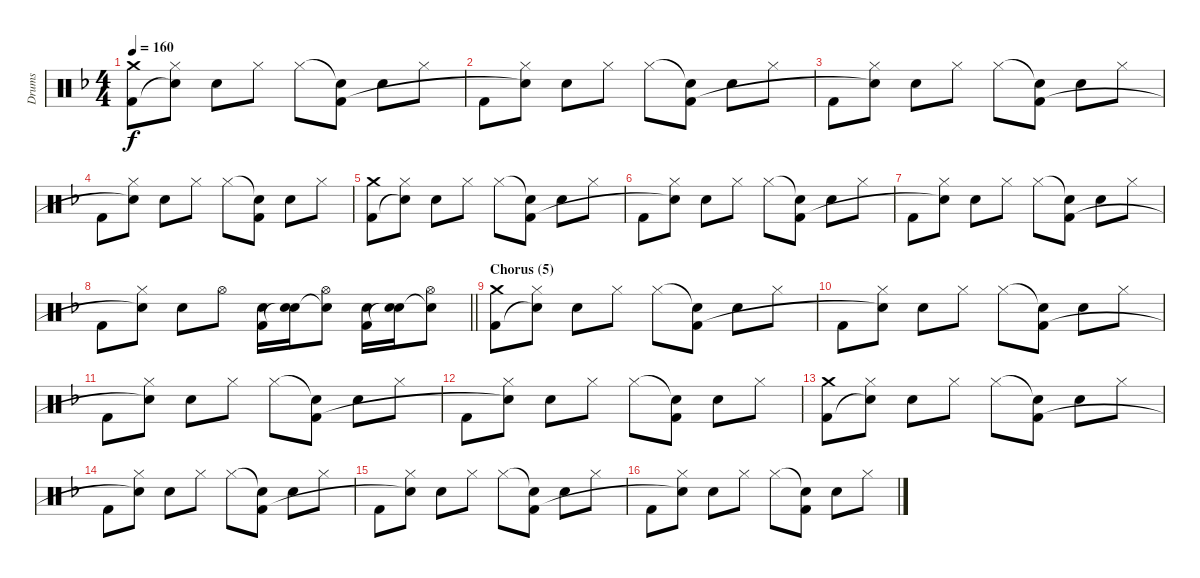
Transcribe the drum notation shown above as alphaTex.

\track ("Drums" "Drums") {instrument percussion}
\staff {score}
\articulation defaults
\ts (4 4)
\tempo 160
\clef neutral
\ks f
("Crash medium (hit)" "Kick (hit) 2").8{dy f} ("Hi-Hat (closed)" "Snare (hit)"{t}).8 "Electric Snare (hit)".8 "Hi-Hat (closed)".8 "Hi-Hat (closed)".8 ("Snare (hit)"{t} "Kick (hit) 2").8 "Electric Snare (hit)".8 "Hi-Hat (closed)".8 |
"Kick (hit) 2".8 ("Hi-Hat (closed)" "Snare (hit)"{t}).8 "Electric Snare (hit)".8 "Hi-Hat (closed)".8 "Hi-Hat (closed)".8 ("Snare (hit)"{t} "Kick (hit) 2").8 "Electric Snare (hit)".8 "Hi-Hat (closed)".8 |
"Kick (hit) 2".8 ("Hi-Hat (closed)" "Snare (hit)"{t}).8 "Electric Snare (hit)".8 "Hi-Hat (closed)".8 "Hi-Hat (closed)".8 ("Snare (hit)"{t} "Kick (hit) 2").8 "Electric Snare (hit)".8 "Hi-Hat (closed)".8 |
"Kick (hit) 2".8 ("Hi-Hat (closed)" "Snare (hit)"{t}).8 "Electric Snare (hit)".8 "Hi-Hat (closed)".8 "Hi-Hat (closed)".8 ("Snare (hit)"{t} "Kick (hit) 2").8 "Electric Snare (hit)".8 "Hi-Hat (closed)".8 |
("Crash medium (hit)" "Kick (hit) 2").8 ("Hi-Hat (closed)" "Snare (hit)"{t}).8 "Electric Snare (hit)".8 "Hi-Hat (closed)".8 "Hi-Hat (closed)".8 ("Snare (hit)"{t} "Kick (hit) 2").8 "Electric Snare (hit)".8 "Hi-Hat (closed)".8 |
"Kick (hit) 2".8 ("Hi-Hat (closed)" "Snare (hit)"{t}).8 "Electric Snare (hit)".8 "Hi-Hat (closed)".8 "Hi-Hat (closed)".8 ("Snare (hit)"{t} "Kick (hit) 2").8 "Electric Snare (hit)".8 "Hi-Hat (closed)".8 |
"Kick (hit) 2".8 ("Hi-Hat (closed)" "Snare (hit)"{t}).8 "Electric Snare (hit)".8 "Hi-Hat (closed)".8 "Hi-Hat (closed)".8 ("Snare (hit)"{t} "Kick (hit) 2").8 "Electric Snare (hit)".8 "Hi-Hat (closed)".8 |
\barLineRight lightlight "Kick (hit) 2".8
("Hi-Hat (closed)" "Snare (hit)"{t}).8 "Electric Snare (hit)".8 "Hi-Hat (open)".8 ("Electric Snare (hit)" "Kick (hit) 2").16 ("Electric Snare (hit)" "Snare (hit)"{t}).16 ("Hi-Hat (open)" "Snare (hit)"{t}).8 ("Electric Snare (hit)" "Kick (hit) 2").16 ("Electric Snare (hit)" "Snare (hit)"{t}).16 ("Hi-Hat (open)" "Snare (hit)"{t}).8 |
\section ("" "Chorus (5)")
("Crash medium (hit)" "Kick (hit) 2").8 ("Hi-Hat (closed)" "Snare (hit)"{t}).8 "Electric Snare (hit)".8 "Hi-Hat (closed)".8 "Hi-Hat (closed)".8 ("Snare (hit)"{t} "Kick (hit) 2").8 "Electric Snare (hit)".8 "Hi-Hat (closed)".8 |
"Kick (hit) 2".8 ("Hi-Hat (closed)" "Snare (hit)"{t}).8 "Electric Snare (hit)".8 "Hi-Hat (closed)".8 "Hi-Hat (closed)".8 ("Snare (hit)"{t} "Kick (hit) 2").8 "Electric Snare (hit)".8 "Hi-Hat (closed)".8 |
"Kick (hit) 2".8 ("Hi-Hat (closed)" "Snare (hit)"{t}).8 "Electric Snare (hit)".8 "Hi-Hat (closed)".8 "Hi-Hat (closed)".8 ("Snare (hit)"{t} "Kick (hit) 2").8 "Electric Snare (hit)".8 "Hi-Hat (closed)".8 |
"Kick (hit) 2".8 ("Hi-Hat (closed)" "Snare (hit)"{t}).8 "Electric Snare (hit)".8 "Hi-Hat (closed)".8 "Hi-Hat (closed)".8 ("Snare (hit)"{t} "Kick (hit) 2").8 "Electric Snare (hit)".8 "Hi-Hat (closed)".8 |
("Crash medium (hit)" "Kick (hit) 2").8 ("Hi-Hat (closed)" "Snare (hit)"{t}).8 "Electric Snare (hit)".8 "Hi-Hat (closed)".8 "Hi-Hat (closed)".8 ("Snare (hit)"{t} "Kick (hit) 2").8 "Electric Snare (hit)".8 "Hi-Hat (closed)".8 |
"Kick (hit) 2".8 ("Hi-Hat (closed)" "Snare (hit)"{t}).8 "Electric Snare (hit)".8 "Hi-Hat (closed)".8 "Hi-Hat (closed)".8 ("Snare (hit)"{t} "Kick (hit) 2").8 "Electric Snare (hit)".8 "Hi-Hat (closed)".8 |
"Kick (hit) 2".8 ("Hi-Hat (closed)" "Snare (hit)"{t}).8 "Electric Snare (hit)".8 "Hi-Hat (closed)".8 "Hi-Hat (closed)".8 ("Snare (hit)"{t} "Kick (hit) 2").8 "Electric Snare (hit)".8 "Hi-Hat (closed)".8 |
"Kick (hit) 2".8 ("Hi-Hat (closed)" "Snare (hit)"{t}).8 "Electric Snare (hit)".8 "Hi-Hat (closed)".8 "Hi-Hat (closed)".8 ("Snare (hit)"{t} "Kick (hit) 2").8 "Electric Snare (hit)".8 "Hi-Hat (closed)".8
